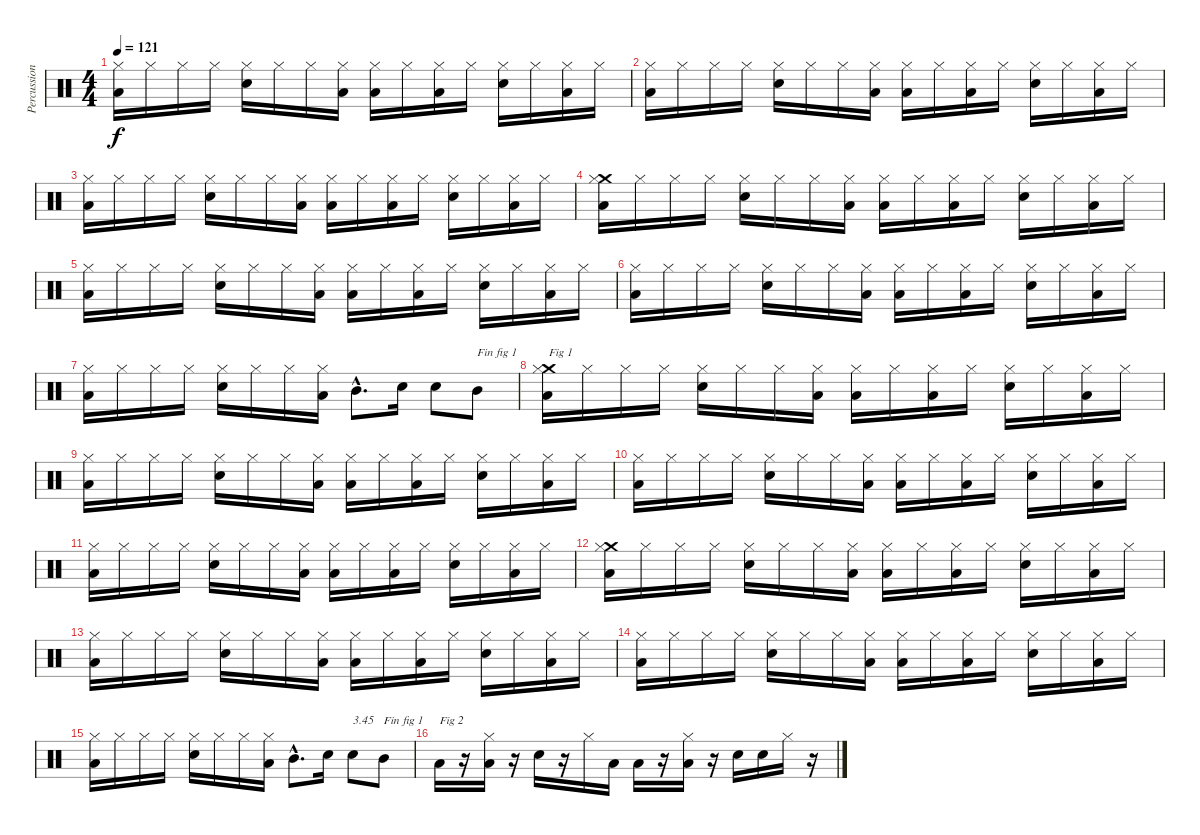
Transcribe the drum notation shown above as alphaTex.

\track ("Percussions" "Percussion") {instrument percussion}
\staff {score}
\articulation defaults
\ts (4 4)
\tempo 121
\clef neutral
\ks c
("Low Floor Tom (hit)" "Hi-Hat (closed)").16{dy f} "Hi-Hat (closed)".16 "Hi-Hat (closed)".16 "Hi-Hat (closed)".16 ("Electric Snare (hit)" "Hi-Hat (closed)").16 "Hi-Hat (closed)".16 "Hi-Hat (closed)".16 ("Low Floor Tom (hit)" "Hi-Hat (closed)").16 ("Low Floor Tom (hit)" "Hi-Hat (closed)").16 "Hi-Hat (closed)".16 ("Low Floor Tom (hit)" "Hi-Hat (closed)").16 "Hi-Hat (closed)".16 ("Electric Snare (hit)" "Hi-Hat (closed)").16 "Hi-Hat (closed)".16 ("Low Floor Tom (hit)" "Hi-Hat (closed)").16 "Hi-Hat (closed)".16 |
("Low Floor Tom (hit)" "Hi-Hat (closed)").16 "Hi-Hat (closed)".16 "Hi-Hat (closed)".16 "Hi-Hat (closed)".16 ("Electric Snare (hit)" "Hi-Hat (closed)").16 "Hi-Hat (closed)".16 "Hi-Hat (closed)".16 ("Low Floor Tom (hit)" "Hi-Hat (closed)").16 ("Low Floor Tom (hit)" "Hi-Hat (closed)").16 "Hi-Hat (closed)".16 ("Low Floor Tom (hit)" "Hi-Hat (closed)").16 "Hi-Hat (closed)".16 ("Electric Snare (hit)" "Hi-Hat (closed)").16 "Hi-Hat (closed)".16 ("Low Floor Tom (hit)" "Hi-Hat (closed)").16 "Hi-Hat (closed)".16 |
("Low Floor Tom (hit)" "Hi-Hat (closed)").16 "Hi-Hat (closed)".16 "Hi-Hat (closed)".16 "Hi-Hat (closed)".16 ("Electric Snare (hit)" "Hi-Hat (closed)").16 "Hi-Hat (closed)".16 "Hi-Hat (closed)".16 ("Low Floor Tom (hit)" "Hi-Hat (closed)").16 ("Low Floor Tom (hit)" "Hi-Hat (closed)").16 "Hi-Hat (closed)".16 ("Low Floor Tom (hit)" "Hi-Hat (closed)").16 "Hi-Hat (closed)".16 ("Electric Snare (hit)" "Hi-Hat (closed)").16 "Hi-Hat (closed)".16 ("Low Floor Tom (hit)" "Hi-Hat (closed)").16 "Hi-Hat (closed)".16 |
("Low Floor Tom (hit)" "Crash medium (hit)" "Hi-Hat (closed)").16 "Hi-Hat (closed)".16 "Hi-Hat (closed)".16 "Hi-Hat (closed)".16 ("Electric Snare (hit)" "Hi-Hat (closed)").16 "Hi-Hat (closed)".16 "Hi-Hat (closed)".16 ("Low Floor Tom (hit)" "Hi-Hat (closed)").16 ("Low Floor Tom (hit)" "Hi-Hat (closed)").16 "Hi-Hat (closed)".16 ("Low Floor Tom (hit)" "Hi-Hat (closed)").16 "Hi-Hat (closed)".16 ("Electric Snare (hit)" "Hi-Hat (closed)").16 "Hi-Hat (closed)".16 ("Low Floor Tom (hit)" "Hi-Hat (closed)").16 "Hi-Hat (closed)".16 |
("Low Floor Tom (hit)" "Hi-Hat (closed)").16 "Hi-Hat (closed)".16 "Hi-Hat (closed)".16 "Hi-Hat (closed)".16 ("Electric Snare (hit)" "Hi-Hat (closed)").16 "Hi-Hat (closed)".16 "Hi-Hat (closed)".16 ("Low Floor Tom (hit)" "Hi-Hat (closed)").16 ("Low Floor Tom (hit)" "Hi-Hat (closed)").16 "Hi-Hat (closed)".16 ("Low Floor Tom (hit)" "Hi-Hat (closed)").16 "Hi-Hat (closed)".16 ("Electric Snare (hit)" "Hi-Hat (closed)").16 "Hi-Hat (closed)".16 ("Low Floor Tom (hit)" "Hi-Hat (closed)").16 "Hi-Hat (closed)".16 |
("Low Floor Tom (hit)" "Hi-Hat (closed)").16 "Hi-Hat (closed)".16 "Hi-Hat (closed)".16 "Hi-Hat (closed)".16 ("Electric Snare (hit)" "Hi-Hat (closed)").16 "Hi-Hat (closed)".16 "Hi-Hat (closed)".16 ("Low Floor Tom (hit)" "Hi-Hat (closed)").16 ("Low Floor Tom (hit)" "Hi-Hat (closed)").16 "Hi-Hat (closed)".16 ("Low Floor Tom (hit)" "Hi-Hat (closed)").16 "Hi-Hat (closed)".16 ("Electric Snare (hit)" "Hi-Hat (closed)").16 "Hi-Hat (closed)".16 ("Low Floor Tom (hit)" "Hi-Hat (closed)").16 "Hi-Hat (closed)".16 |
("Low Floor Tom (hit)" "Hi-Hat (closed)").16 "Hi-Hat (closed)".16 "Hi-Hat (closed)".16 "Hi-Hat (closed)".16 ("Electric Snare (hit)" "Hi-Hat (closed)").16 "Hi-Hat (closed)".16 "Hi-Hat (closed)".16 ("Low Floor Tom (hit)" "Hi-Hat (closed)").16 "Mid Tom (hit)"{hac}.8{d} "Electric Snare (hit)".16 "Electric Snare (hit)".8 "Mid Tom (hit)".8{txt "Fin fig 1"} |
("Low Floor Tom (hit)" "Crash medium (hit)" "Hi-Hat (closed)").16{txt "Fig 1"} "Hi-Hat (closed)".16 "Hi-Hat (closed)".16 "Hi-Hat (closed)".16 ("Electric Snare (hit)" "Hi-Hat (closed)").16 "Hi-Hat (closed)".16 "Hi-Hat (closed)".16 ("Low Floor Tom (hit)" "Hi-Hat (closed)").16 ("Low Floor Tom (hit)" "Hi-Hat (closed)").16 "Hi-Hat (closed)".16 ("Low Floor Tom (hit)" "Hi-Hat (closed)").16 "Hi-Hat (closed)".16 ("Electric Snare (hit)" "Hi-Hat (closed)").16 "Hi-Hat (closed)".16 ("Low Floor Tom (hit)" "Hi-Hat (closed)").16 "Hi-Hat (closed)".16 |
("Low Floor Tom (hit)" "Hi-Hat (closed)").16 "Hi-Hat (closed)".16 "Hi-Hat (closed)".16 "Hi-Hat (closed)".16 ("Electric Snare (hit)" "Hi-Hat (closed)").16 "Hi-Hat (closed)".16 "Hi-Hat (closed)".16 ("Low Floor Tom (hit)" "Hi-Hat (closed)").16 ("Low Floor Tom (hit)" "Hi-Hat (closed)").16 "Hi-Hat (closed)".16 ("Low Floor Tom (hit)" "Hi-Hat (closed)").16 "Hi-Hat (closed)".16 ("Electric Snare (hit)" "Hi-Hat (closed)").16 "Hi-Hat (closed)".16 ("Low Floor Tom (hit)" "Hi-Hat (closed)").16 "Hi-Hat (closed)".16 |
("Low Floor Tom (hit)" "Hi-Hat (closed)").16 "Hi-Hat (closed)".16 "Hi-Hat (closed)".16 "Hi-Hat (closed)".16 ("Electric Snare (hit)" "Hi-Hat (closed)").16 "Hi-Hat (closed)".16 "Hi-Hat (closed)".16 ("Low Floor Tom (hit)" "Hi-Hat (closed)").16 ("Low Floor Tom (hit)" "Hi-Hat (closed)").16 "Hi-Hat (closed)".16 ("Low Floor Tom (hit)" "Hi-Hat (closed)").16 "Hi-Hat (closed)".16 ("Electric Snare (hit)" "Hi-Hat (closed)").16 "Hi-Hat (closed)".16 ("Low Floor Tom (hit)" "Hi-Hat (closed)").16 "Hi-Hat (closed)".16 |
("Low Floor Tom (hit)" "Hi-Hat (closed)").16 "Hi-Hat (closed)".16 "Hi-Hat (closed)".16 "Hi-Hat (closed)".16 ("Electric Snare (hit)" "Hi-Hat (closed)").16 "Hi-Hat (closed)".16 "Hi-Hat (closed)".16 ("Low Floor Tom (hit)" "Hi-Hat (closed)").16 ("Low Floor Tom (hit)" "Hi-Hat (closed)").16 "Hi-Hat (closed)".16 ("Low Floor Tom (hit)" "Hi-Hat (closed)").16 "Hi-Hat (closed)".16 ("Electric Snare (hit)" "Hi-Hat (closed)").16 "Hi-Hat (closed)".16 ("Low Floor Tom (hit)" "Hi-Hat (closed)").16 "Hi-Hat (closed)".16 |
("Low Floor Tom (hit)" "Crash medium (hit)" "Hi-Hat (closed)").16 "Hi-Hat (closed)".16 "Hi-Hat (closed)".16 "Hi-Hat (closed)".16 ("Electric Snare (hit)" "Hi-Hat (closed)").16 "Hi-Hat (closed)".16 "Hi-Hat (closed)".16 ("Low Floor Tom (hit)" "Hi-Hat (closed)").16 ("Low Floor Tom (hit)" "Hi-Hat (closed)").16 "Hi-Hat (closed)".16 ("Low Floor Tom (hit)" "Hi-Hat (closed)").16 "Hi-Hat (closed)".16 ("Electric Snare (hit)" "Hi-Hat (closed)").16 "Hi-Hat (closed)".16 ("Low Floor Tom (hit)" "Hi-Hat (closed)").16 "Hi-Hat (closed)".16 |
("Low Floor Tom (hit)" "Hi-Hat (closed)").16 "Hi-Hat (closed)".16 "Hi-Hat (closed)".16 "Hi-Hat (closed)".16 ("Electric Snare (hit)" "Hi-Hat (closed)").16 "Hi-Hat (closed)".16 "Hi-Hat (closed)".16 ("Low Floor Tom (hit)" "Hi-Hat (closed)").16 ("Low Floor Tom (hit)" "Hi-Hat (closed)").16 "Hi-Hat (closed)".16 ("Low Floor Tom (hit)" "Hi-Hat (closed)").16 "Hi-Hat (closed)".16 ("Electric Snare (hit)" "Hi-Hat (closed)").16 "Hi-Hat (closed)".16 ("Low Floor Tom (hit)" "Hi-Hat (closed)").16 "Hi-Hat (closed)".16 |
("Low Floor Tom (hit)" "Hi-Hat (closed)").16 "Hi-Hat (closed)".16 "Hi-Hat (closed)".16 "Hi-Hat (closed)".16 ("Electric Snare (hit)" "Hi-Hat (closed)").16 "Hi-Hat (closed)".16 "Hi-Hat (closed)".16 ("Low Floor Tom (hit)" "Hi-Hat (closed)").16 ("Low Floor Tom (hit)" "Hi-Hat (closed)").16 "Hi-Hat (closed)".16 ("Low Floor Tom (hit)" "Hi-Hat (closed)").16 "Hi-Hat (closed)".16 ("Electric Snare (hit)" "Hi-Hat (closed)").16 "Hi-Hat (closed)".16 ("Low Floor Tom (hit)" "Hi-Hat (closed)").16 "Hi-Hat (closed)".16 |
("Low Floor Tom (hit)" "Hi-Hat (closed)").16 "Hi-Hat (closed)".16 "Hi-Hat (closed)".16 "Hi-Hat (closed)".16 ("Electric Snare (hit)" "Hi-Hat (closed)").16 "Hi-Hat (closed)".16 "Hi-Hat (closed)".16 ("Low Floor Tom (hit)" "Hi-Hat (closed)").16 "Mid Tom (hit)"{hac}.8{d} "Electric Snare (hit)".16 "Electric Snare (hit)".8{txt "3.45"} "Mid Tom (hit)".8{txt "Fin fig 1"} |
"Low Floor Tom (hit)".16{txt "Fig 2"} r.16 ("Low Floor Tom (hit)" "Hi-Hat (closed)").16 r.16 "Electric Snare (hit)".16 r.16 "Hi-Hat (closed)".16 "Low Floor Tom (hit)".16 "Low Floor Tom (hit)".16 r.16 ("Low Floor Tom (hit)" "Hi-Hat (closed)").16 r.16 "Electric Snare (hit)".16 "Electric Snare (hit)".16 "Hi-Hat (closed)".16 r.16
